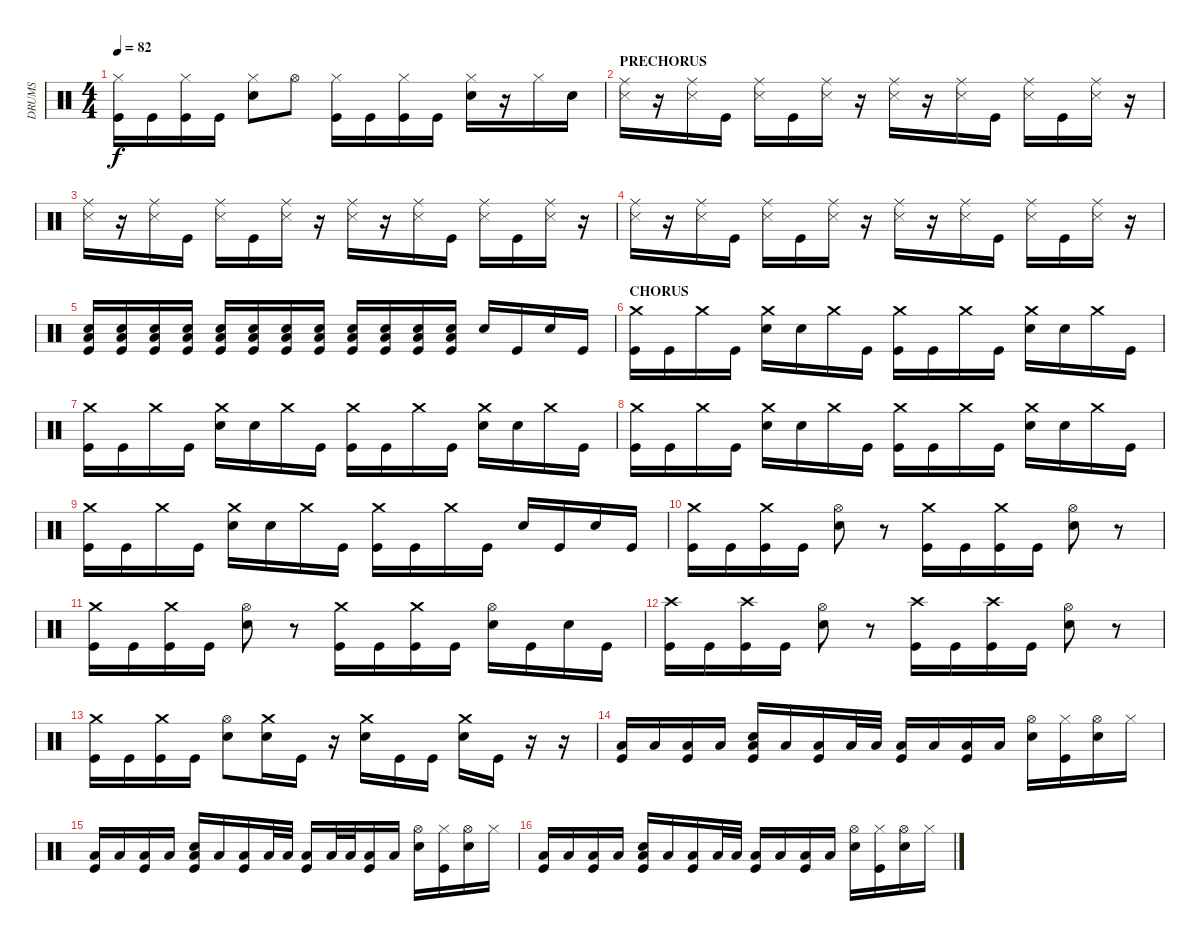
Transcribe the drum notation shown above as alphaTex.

\track ("DRUMS" "DRUMS") {instrument percussion}
\staff {score}
\articulation defaults
\ts (4 4)
\tempo 82
\clef neutral
\ks c
("Hi-Hat (closed)" "Kick (hit)").16{dy f} "Kick (hit)".16 ("Hi-Hat (closed)" "Kick (hit)").16 "Kick (hit)".16 ("Hi-Hat (closed)" "Electric Snare (hit)").8 "Hi-Hat (open)".8 ("Hi-Hat (closed)" "Kick (hit)").16 "Kick (hit)".16 ("Hi-Hat (closed)" "Kick (hit)").16 "Kick (hit)".16 ("Hi-Hat (closed)" "Electric Snare (hit)").16 r.16 "Hi-Hat (closed)".16 "Electric Snare (hit)".16 |
\section ("" "PRECHORUS")
("Ride (middle)" "Snare (side stick) 3").16 r.16 ("Ride (middle)" "Snare (side stick) 3").16 "Kick (hit)".16 ("Ride (middle)" "Snare (side stick) 3").16 "Kick (hit)".16 ("Ride (middle)" "Snare (side stick) 3").16 r.16 ("Ride (middle)" "Snare (side stick) 3").16 r.16 ("Ride (middle)" "Snare (side stick) 3").16 "Kick (hit)".16 ("Ride (middle)" "Snare (side stick) 3").16 "Kick (hit)".16 ("Ride (middle)" "Snare (side stick) 3").16 r.16 |
("Ride (middle)" "Snare (side stick) 3").16 r.16 ("Ride (middle)" "Snare (side stick) 3").16 "Kick (hit)".16 ("Ride (middle)" "Snare (side stick) 3").16 "Kick (hit)".16 ("Ride (middle)" "Snare (side stick) 3").16 r.16 ("Ride (middle)" "Snare (side stick) 3").16 r.16 ("Ride (middle)" "Snare (side stick) 3").16 "Kick (hit)".16 ("Ride (middle)" "Snare (side stick) 3").16 "Kick (hit)".16 ("Ride (middle)" "Snare (side stick) 3").16 r.16 |
("Ride (middle)" "Snare (side stick) 3").16 r.16 ("Ride (middle)" "Snare (side stick) 3").16 "Kick (hit)".16 ("Ride (middle)" "Snare (side stick) 3").16 "Kick (hit)".16 ("Ride (middle)" "Snare (side stick) 3").16 r.16 ("Ride (middle)" "Snare (side stick) 3").16 r.16 ("Ride (middle)" "Snare (side stick) 3").16 "Kick (hit)".16 ("Ride (middle)" "Snare (side stick) 3").16 "Kick (hit)".16 ("Ride (middle)" "Snare (side stick) 3").16 r.16{volume 3} |
("Electric Snare (hit)" "Low Floor Tom (hit)" "Kick (hit)").16{volume 13} ("Electric Snare (hit)" "Low Floor Tom (hit)" "Kick (hit)").16 ("Electric Snare (hit)" "Low Floor Tom (hit)" "Kick (hit)").16 ("Electric Snare (hit)" "Low Floor Tom (hit)" "Kick (hit)").16 ("Electric Snare (hit)" "Low Floor Tom (hit)" "Kick (hit)").16 ("Electric Snare (hit)" "Low Floor Tom (hit)" "Kick (hit)").16 ("Electric Snare (hit)" "Low Floor Tom (hit)" "Kick (hit)").16 ("Electric Snare (hit)" "Low Floor Tom (hit)" "Kick (hit)").16 ("Electric Snare (hit)" "Low Floor Tom (hit)" "Kick (hit)").16 ("Electric Snare (hit)" "Low Floor Tom (hit)" "Kick (hit)").16 ("Electric Snare (hit)" "Low Floor Tom (hit)" "Kick (hit)").16 ("Electric Snare (hit)" "Low Floor Tom (hit)" "Kick (hit)").16 "Electric Snare (hit)".16 "Kick (hit)".16 "Electric Snare (hit)".16 "Kick (hit)".16 |
\section ("" "CHORUS")
("Crash medium (hit)" "Kick (hit)").16{volume 13} "Kick (hit)".16 "Crash medium (hit)".16 "Kick (hit)".16 ("Crash medium (hit)" "Electric Snare (hit)").16 "Electric Snare (hit)".16 "Crash medium (hit)".16 "Kick (hit)".16 ("Crash medium (hit)" "Kick (hit)").16 "Kick (hit)".16 "Crash medium (hit)".16 "Kick (hit)".16 ("Crash medium (hit)" "Electric Snare (hit)").16 "Electric Snare (hit)".16 "Crash medium (hit)".16 "Kick (hit)".16 |
("Crash medium (hit)" "Kick (hit)").16{volume 13} "Kick (hit)".16 "Crash medium (hit)".16 "Kick (hit)".16 ("Crash medium (hit)" "Electric Snare (hit)").16 "Electric Snare (hit)".16 "Crash medium (hit)".16 "Kick (hit)".16 ("Crash medium (hit)" "Kick (hit)").16 "Kick (hit)".16 "Crash medium (hit)".16 "Kick (hit)".16 ("Crash medium (hit)" "Electric Snare (hit)").16 "Electric Snare (hit)".16 "Crash medium (hit)".16 "Kick (hit)".16 |
("Crash medium (hit)" "Kick (hit)").16{volume 13} "Kick (hit)".16 "Crash medium (hit)".16 "Kick (hit)".16 ("Crash medium (hit)" "Electric Snare (hit)").16 "Electric Snare (hit)".16 "Crash medium (hit)".16 "Kick (hit)".16 ("Crash medium (hit)" "Kick (hit)").16 "Kick (hit)".16 "Crash medium (hit)".16 "Kick (hit)".16 ("Crash medium (hit)" "Electric Snare (hit)").16 "Electric Snare (hit)".16 "Crash medium (hit)".16 "Kick (hit)".16 |
("Crash medium (hit)" "Kick (hit)").16{volume 13} "Kick (hit)".16 "Crash medium (hit)".16 "Kick (hit)".16 ("Crash medium (hit)" "Electric Snare (hit)").16 "Electric Snare (hit)".16 "Crash medium (hit)".16 "Kick (hit)".16 ("Crash medium (hit)" "Kick (hit)").16 "Kick (hit)".16 "Crash medium (hit)".16 "Kick (hit)".16 "Electric Snare (hit)".16 "Kick (hit)".16 "Electric Snare (hit)".16 "Kick (hit)".16 |
("Crash medium (hit)" "Kick (hit)").16 "Kick (hit)".16 ("Crash medium (hit)" "Kick (hit)").16 "Kick (hit)".16 ("Hi-Hat (open)" "Electric Snare (hit)").8 r.8 ("Crash medium (hit)" "Kick (hit)").16 "Kick (hit)".16 ("Crash medium (hit)" "Kick (hit)").16 "Kick (hit)".16 ("Hi-Hat (open)" "Electric Snare (hit)").8 r.8 |
("Crash medium (hit)" "Kick (hit)").16 "Kick (hit)".16 ("Crash medium (hit)" "Kick (hit)").16 "Kick (hit)".16 ("Hi-Hat (open)" "Electric Snare (hit)").8 r.8 ("Crash medium (hit)" "Kick (hit)").16 "Kick (hit)".16 ("Crash medium (hit)" "Kick (hit)").16 "Kick (hit)".16 ("Hi-Hat (open)" "Electric Snare (hit)").16 "Kick (hit)".16 "Electric Snare (hit)".16 "Kick (hit)".16 |
("Crash high (hit)" "Kick (hit)").16 "Kick (hit)".16 ("Crash high (hit)" "Kick (hit)").16 "Kick (hit)".16 ("Hi-Hat (open)" "Electric Snare (hit)").8 r.8 ("Crash high (hit)" "Kick (hit)").16 "Kick (hit)".16 ("Crash high (hit)" "Kick (hit)").16 "Kick (hit)".16 ("Hi-Hat (open)" "Electric Snare (hit)").8 r.8 |
("Crash medium (hit)" "Kick (hit)").16 "Kick (hit)".16 ("Crash medium (hit)" "Kick (hit)").16 "Kick (hit)".16 ("Hi-Hat (open)" "Electric Snare (hit)").8 ("Crash medium (hit)" "Electric Snare (hit)").16 "Kick (hit)".16 r.16 ("Crash medium (hit)" "Electric Snare (hit)").16 "Kick (hit)".16 "Kick (hit)".16 ("Crash medium (hit)" "Electric Snare (hit)").16 "Kick (hit)".16 r.16 r.16 |
("Low Floor Tom (hit)" "Kick (hit)").16 "Low Floor Tom (hit)".16 ("Low Floor Tom (hit)" "Kick (hit)").16 "Low Floor Tom (hit)".16 ("Electric Snare (hit)" "Low Floor Tom (hit)" "Kick (hit)").16 "Low Floor Tom (hit)".16 ("Low Floor Tom (hit)" "Kick (hit)").16 "Low Floor Tom (hit)".32 "Low Floor Tom (hit)".32 ("Low Floor Tom (hit)" "Kick (hit)").16 "Low Floor Tom (hit)".16 ("Low Floor Tom (hit)" "Kick (hit)").16 "Low Floor Tom (hit)".16 ("Hi-Hat (open)" "Electric Snare (hit)").16 ("Hi-Hat (closed)" "Kick (hit)").16 ("Hi-Hat (open)" "Electric Snare (hit)").16 "Hi-Hat (closed)".16 |
("Low Floor Tom (hit)" "Kick (hit)").16 "Low Floor Tom (hit)".16 ("Low Floor Tom (hit)" "Kick (hit)").16 "Low Floor Tom (hit)".16 ("Electric Snare (hit)" "Low Floor Tom (hit)" "Kick (hit)").16 "Low Floor Tom (hit)".16 ("Low Floor Tom (hit)" "Kick (hit)").16 "Low Floor Tom (hit)".32 "Low Floor Tom (hit)".32 ("Low Floor Tom (hit)" "Kick (hit)").16 "Low Floor Tom (hit)".32 "Low Floor Tom (hit)".32 ("Low Floor Tom (hit)" "Kick (hit)").16 "Low Floor Tom (hit)".16 ("Hi-Hat (open)" "Electric Snare (hit)").16 ("Hi-Hat (closed)" "Kick (hit)").16 ("Hi-Hat (open)" "Electric Snare (hit)").16 "Hi-Hat (closed)".16 |
("Low Floor Tom (hit)" "Kick (hit)").16 "Low Floor Tom (hit)".16 ("Low Floor Tom (hit)" "Kick (hit)").16 "Low Floor Tom (hit)".16 ("Electric Snare (hit)" "Low Floor Tom (hit)" "Kick (hit)").16 "Low Floor Tom (hit)".16 ("Low Floor Tom (hit)" "Kick (hit)").16 "Low Floor Tom (hit)".32 "Low Floor Tom (hit)".32 ("Low Floor Tom (hit)" "Kick (hit)").16 "Low Floor Tom (hit)".16 ("Low Floor Tom (hit)" "Kick (hit)").16 "Low Floor Tom (hit)".16 ("Hi-Hat (open)" "Electric Snare (hit)").16 ("Hi-Hat (closed)" "Kick (hit)").16 ("Hi-Hat (open)" "Electric Snare (hit)").16 "Hi-Hat (closed)".16
